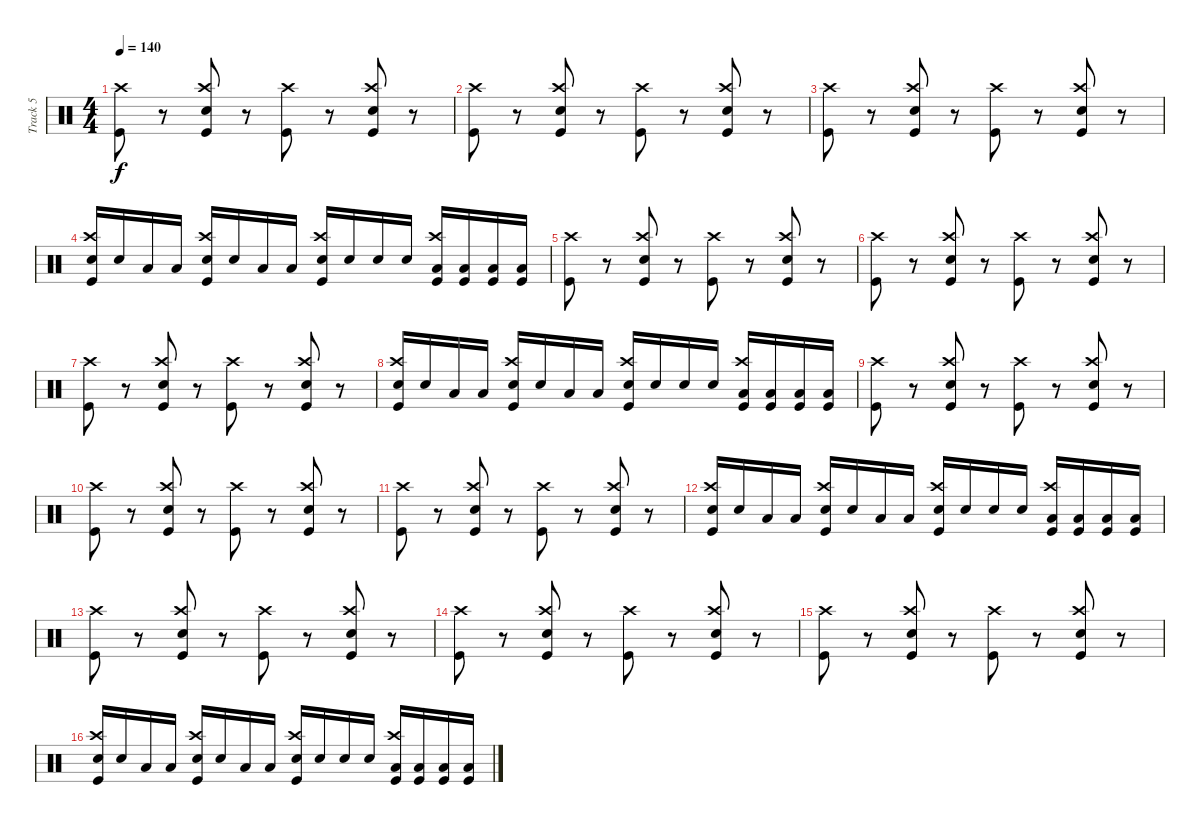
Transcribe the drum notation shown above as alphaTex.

\track ("Track 5" "Track 5") {instrument percussion}
\staff {score}
\articulation defaults
\ts (4 4)
\tempo 140
\clef neutral
\ks c
("Kick (hit)" "Crash high (hit)").8{dy f} r.8 ("Electric Snare (hit)" "Kick (hit)" "Crash high (hit)").8 r.8 ("Kick (hit)" "Crash high (hit)").8 r.8 ("Electric Snare (hit)" "Kick (hit)" "Crash high (hit)").8 r.8 |
("Kick (hit)" "Crash high (hit)").8 r.8 ("Electric Snare (hit)" "Kick (hit)" "Crash high (hit)").8 r.8 ("Kick (hit)" "Crash high (hit)").8 r.8 ("Electric Snare (hit)" "Kick (hit)" "Crash high (hit)").8 r.8 |
("Kick (hit)" "Crash high (hit)").8 r.8 ("Electric Snare (hit)" "Kick (hit)" "Crash high (hit)").8 r.8 ("Kick (hit)" "Crash high (hit)").8 r.8 ("Electric Snare (hit)" "Kick (hit)" "Crash high (hit)").8 r.8 |
("Kick (hit)" "Crash high (hit)" "Electric Snare (hit)").16 "Electric Snare (hit)".16 "Low Tom (hit)".16 "Low Tom (hit)".16 ("Electric Snare (hit)" "Kick (hit)" "Crash high (hit)").16 "Electric Snare (hit)".16 "Low Tom (hit)".16 "Low Tom (hit)".16 ("Kick (hit)" "Crash high (hit)" "Electric Snare (hit)").16 "Electric Snare (hit)".16 "Electric Snare (hit)".16 "Electric Snare (hit)".16 ("Low Tom (hit)" "Kick (hit)" "Crash high (hit)").16 ("Low Tom (hit)" "Kick (hit)").16 ("Low Tom (hit)" "Kick (hit)").16 ("Low Tom (hit)" "Kick (hit)").16 |
("Kick (hit)" "Crash high (hit)").8 r.8 ("Electric Snare (hit)" "Kick (hit)" "Crash high (hit)").8 r.8 ("Kick (hit)" "Crash high (hit)").8 r.8 ("Electric Snare (hit)" "Kick (hit)" "Crash high (hit)").8 r.8 |
("Kick (hit)" "Crash high (hit)").8 r.8 ("Electric Snare (hit)" "Kick (hit)" "Crash high (hit)").8 r.8 ("Kick (hit)" "Crash high (hit)").8 r.8 ("Electric Snare (hit)" "Kick (hit)" "Crash high (hit)").8 r.8 |
("Kick (hit)" "Crash high (hit)").8 r.8 ("Electric Snare (hit)" "Kick (hit)" "Crash high (hit)").8 r.8 ("Kick (hit)" "Crash high (hit)").8 r.8 ("Electric Snare (hit)" "Kick (hit)" "Crash high (hit)").8 r.8 |
("Kick (hit)" "Crash high (hit)" "Electric Snare (hit)").16 "Electric Snare (hit)".16 "Low Tom (hit)".16 "Low Tom (hit)".16 ("Electric Snare (hit)" "Kick (hit)" "Crash high (hit)").16 "Electric Snare (hit)".16 "Low Tom (hit)".16 "Low Tom (hit)".16 ("Kick (hit)" "Crash high (hit)" "Electric Snare (hit)").16 "Electric Snare (hit)".16 "Electric Snare (hit)".16 "Electric Snare (hit)".16 ("Low Tom (hit)" "Kick (hit)" "Crash high (hit)").16 ("Low Tom (hit)" "Kick (hit)").16 ("Low Tom (hit)" "Kick (hit)").16 ("Low Tom (hit)" "Kick (hit)").16 |
("Kick (hit)" "Crash high (hit)").8 r.8 ("Electric Snare (hit)" "Kick (hit)" "Crash high (hit)").8 r.8 ("Kick (hit)" "Crash high (hit)").8 r.8 ("Electric Snare (hit)" "Kick (hit)" "Crash high (hit)").8 r.8 |
("Kick (hit)" "Crash high (hit)").8 r.8 ("Electric Snare (hit)" "Kick (hit)" "Crash high (hit)").8 r.8 ("Kick (hit)" "Crash high (hit)").8 r.8 ("Electric Snare (hit)" "Kick (hit)" "Crash high (hit)").8 r.8 |
("Kick (hit)" "Crash high (hit)").8 r.8 ("Electric Snare (hit)" "Kick (hit)" "Crash high (hit)").8 r.8 ("Kick (hit)" "Crash high (hit)").8 r.8 ("Electric Snare (hit)" "Kick (hit)" "Crash high (hit)").8 r.8 |
("Kick (hit)" "Crash high (hit)" "Electric Snare (hit)").16 "Electric Snare (hit)".16 "Low Tom (hit)".16 "Low Tom (hit)".16 ("Electric Snare (hit)" "Kick (hit)" "Crash high (hit)").16 "Electric Snare (hit)".16 "Low Tom (hit)".16 "Low Tom (hit)".16 ("Kick (hit)" "Crash high (hit)" "Electric Snare (hit)").16 "Electric Snare (hit)".16 "Electric Snare (hit)".16 "Electric Snare (hit)".16 ("Low Tom (hit)" "Kick (hit)" "Crash high (hit)").16 ("Low Tom (hit)" "Kick (hit)").16 ("Low Tom (hit)" "Kick (hit)").16 ("Low Tom (hit)" "Kick (hit)").16 |
("Kick (hit)" "Crash high (hit)").8 r.8 ("Electric Snare (hit)" "Kick (hit)" "Crash high (hit)").8 r.8 ("Kick (hit)" "Crash high (hit)").8 r.8 ("Electric Snare (hit)" "Kick (hit)" "Crash high (hit)").8 r.8 |
("Kick (hit)" "Crash high (hit)").8 r.8 ("Electric Snare (hit)" "Kick (hit)" "Crash high (hit)").8 r.8 ("Kick (hit)" "Crash high (hit)").8 r.8 ("Electric Snare (hit)" "Kick (hit)" "Crash high (hit)").8 r.8 |
("Kick (hit)" "Crash high (hit)").8 r.8 ("Electric Snare (hit)" "Kick (hit)" "Crash high (hit)").8 r.8 ("Kick (hit)" "Crash high (hit)").8 r.8 ("Electric Snare (hit)" "Kick (hit)" "Crash high (hit)").8 r.8 |
("Kick (hit)" "Crash high (hit)" "Electric Snare (hit)").16 "Electric Snare (hit)".16 "Low Tom (hit)".16 "Low Tom (hit)".16 ("Electric Snare (hit)" "Kick (hit)" "Crash high (hit)").16 "Electric Snare (hit)".16 "Low Tom (hit)".16 "Low Tom (hit)".16 ("Kick (hit)" "Crash high (hit)" "Electric Snare (hit)").16 "Electric Snare (hit)".16 "Electric Snare (hit)".16 "Electric Snare (hit)".16 ("Low Tom (hit)" "Kick (hit)" "Crash high (hit)").16 ("Low Tom (hit)" "Kick (hit)").16 ("Low Tom (hit)" "Kick (hit)").16 ("Low Tom (hit)" "Kick (hit)").16
